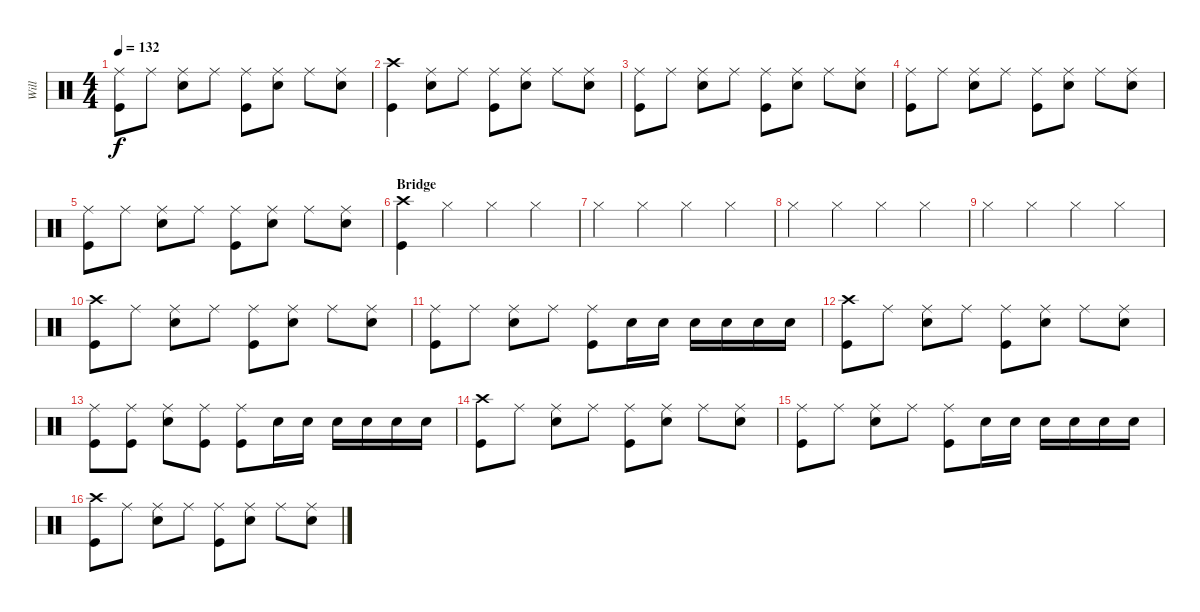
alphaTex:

\track ("Will" "Will") {instrument percussion}
\staff {score}
\articulation defaults
\ts (4 4)
\tempo 132
\clef neutral
\ks c
("Ride (middle)" "Kick (hit)").8{dy f} "Ride (middle)".8 ("Ride (middle)" "Snare (hit) 2").8 "Ride (middle)".8 ("Ride (middle)" "Kick (hit)").8 ("Ride (middle)" "Snare (hit) 2").8 "Ride (middle)".8 ("Ride (middle)" "Snare (hit) 2").8 |
("Crash high (hit)" "Kick (hit)").4 ("Ride (middle)" "Snare (hit) 2").8 "Ride (middle)".8 ("Ride (middle)" "Kick (hit)").8 ("Ride (middle)" "Snare (hit) 2").8 "Ride (middle)".8 ("Ride (middle)" "Snare (hit) 2").8 |
("Ride (middle)" "Kick (hit)").8 "Ride (middle)".8 ("Ride (middle)" "Snare (hit) 2").8 "Ride (middle)".8 ("Ride (middle)" "Kick (hit)").8 ("Ride (middle)" "Snare (hit) 2").8 "Ride (middle)".8 ("Ride (middle)" "Snare (hit) 2").8 |
("Ride (middle)" "Kick (hit)").8 "Ride (middle)".8 ("Ride (middle)" "Snare (hit) 2").8 "Ride (middle)".8 ("Ride (middle)" "Kick (hit)").8 ("Ride (middle)" "Snare (hit) 2").8 "Ride (middle)".8 ("Ride (middle)" "Snare (hit) 2").8 |
("Ride (middle)" "Kick (hit)").8 "Ride (middle)".8 ("Ride (middle)" "Snare (hit) 2").8 "Ride (middle)".8 ("Ride (middle)" "Kick (hit)").8 ("Ride (middle)" "Snare (hit) 2").8 "Ride (middle)".8 ("Ride (middle)" "Snare (hit) 2").8 |
\section ("" "Bridge")
("Crash high (hit)" "Kick (hit)").4 "Hi-Hat (closed)".4 "Hi-Hat (closed)".4 "Hi-Hat (closed)".4 |
"Hi-Hat (closed)".4 "Hi-Hat (closed)".4 "Hi-Hat (closed)".4 "Hi-Hat (closed)".4 |
"Hi-Hat (closed)".4 "Hi-Hat (closed)".4 "Hi-Hat (closed)".4 "Hi-Hat (closed)".4 |
"Hi-Hat (closed)".4 "Hi-Hat (closed)".4 "Hi-Hat (closed)".4 "Hi-Hat (closed)".4 |
("Crash high (hit)" "Kick (hit)").8 "Ride (middle)".8 ("Ride (middle)" "Snare (hit) 2").8 "Ride (middle)".8 ("Ride (middle)" "Kick (hit)").8 ("Ride (middle)" "Snare (hit) 2").8 "Ride (middle)".8 ("Ride (middle)" "Snare (hit) 2").8 |
("Ride (middle)" "Kick (hit)").8 "Ride (middle)".8 ("Ride (middle)" "Snare (hit) 2").8 "Ride (middle)".8 ("Ride (middle)" "Kick (hit)").8 "Snare (hit) 2".16 "Snare (hit) 2".16 "Snare (hit) 2".16 "Snare (hit) 2".16 "Snare (hit) 2".16 "Snare (hit) 2".16 |
("Crash high (hit)" "Kick (hit)").8 "Ride (middle)".8 ("Ride (middle)" "Snare (hit) 2").8 "Ride (middle)".8 ("Ride (middle)" "Kick (hit)").8 ("Ride (middle)" "Snare (hit) 2").8 "Ride (middle)".8 ("Ride (middle)" "Snare (hit) 2").8 |
("Ride (middle)" "Kick (hit)").8 ("Ride (middle)" "Kick (hit)").8 ("Ride (middle)" "Snare (hit) 2").8 ("Ride (middle)" "Kick (hit)").8 ("Ride (middle)" "Kick (hit)").8 "Snare (hit) 2".16 "Snare (hit) 2".16 "Snare (hit) 2".16 "Snare (hit) 2".16 "Snare (hit) 2".16 "Snare (hit) 2".16 |
("Crash high (hit)" "Kick (hit)").8 "Ride (middle)".8 ("Ride (middle)" "Snare (hit) 2").8 "Ride (middle)".8 ("Ride (middle)" "Kick (hit)").8 ("Ride (middle)" "Snare (hit) 2").8 "Ride (middle)".8 ("Ride (middle)" "Snare (hit) 2").8 |
("Ride (middle)" "Kick (hit)").8 "Ride (middle)".8 ("Ride (middle)" "Snare (hit) 2").8 "Ride (middle)".8 ("Ride (middle)" "Kick (hit)").8 "Snare (hit) 2".16 "Snare (hit) 2".16 "Snare (hit) 2".16 "Snare (hit) 2".16 "Snare (hit) 2".16 "Snare (hit) 2".16 |
("Crash high (hit)" "Kick (hit)").8 "Ride (middle)".8 ("Ride (middle)" "Snare (hit) 2").8 "Ride (middle)".8 ("Ride (middle)" "Kick (hit)").8 ("Ride (middle)" "Snare (hit) 2").8 "Ride (middle)".8 ("Ride (middle)" "Snare (hit) 2").8
